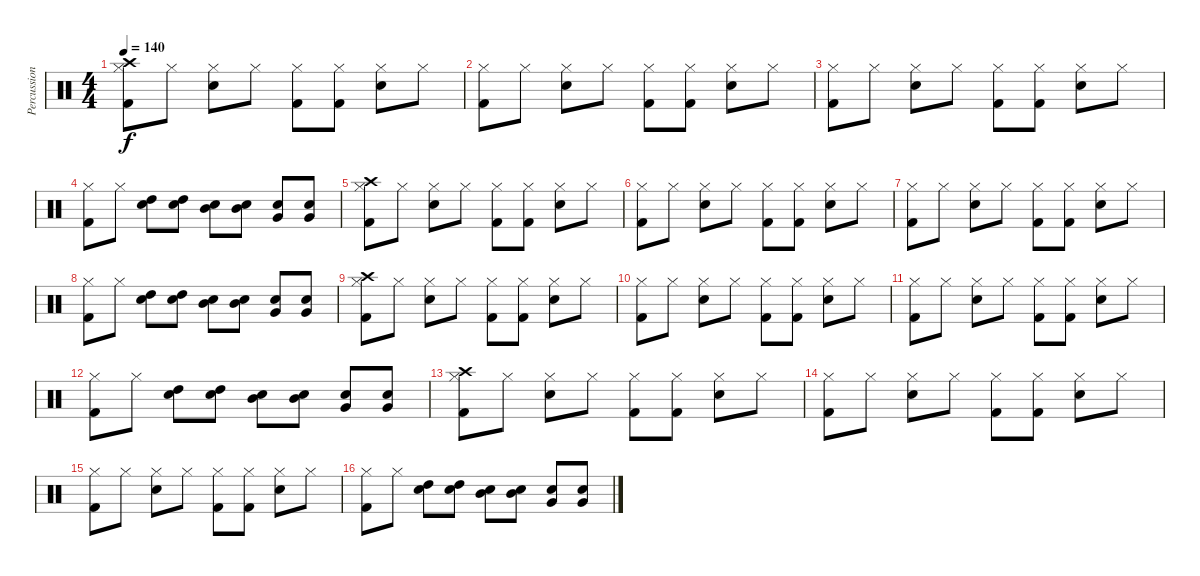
\track ("Percussion" "Percussion") {instrument percussion}
\staff {score}
\articulation defaults
\ts (4 4)
\tempo 140
\clef neutral
\ks c
("Kick (hit) 2" "Hi-Hat (closed)" "Crash high (hit)").8{dy f} "Hi-Hat (closed)".8 ("Electric Snare (hit)" "Hi-Hat (closed)").8 "Hi-Hat (closed)".8 ("Kick (hit) 2" "Hi-Hat (closed)").8 ("Kick (hit) 2" "Hi-Hat (closed)").8 ("Electric Snare (hit)" "Hi-Hat (closed)").8 "Hi-Hat (closed)".8 |
("Kick (hit) 2" "Hi-Hat (closed)").8 "Hi-Hat (closed)".8 ("Electric Snare (hit)" "Hi-Hat (closed)").8 "Hi-Hat (closed)".8 ("Kick (hit) 2" "Hi-Hat (closed)").8 ("Kick (hit) 2" "Hi-Hat (closed)").8 ("Electric Snare (hit)" "Hi-Hat (closed)").8 "Hi-Hat (closed)".8 |
("Kick (hit) 2" "Hi-Hat (closed)").8 "Hi-Hat (closed)".8 ("Electric Snare (hit)" "Hi-Hat (closed)").8 "Hi-Hat (closed)".8 ("Kick (hit) 2" "Hi-Hat (closed)").8 ("Kick (hit) 2" "Hi-Hat (closed)").8 ("Electric Snare (hit)" "Hi-Hat (closed)").8 "Hi-Hat (closed)".8 |
("Kick (hit) 2" "Hi-Hat (closed)").8 "Hi-Hat (closed)".8 ("Electric Snare (hit)" "High Tom (hit)").8 ("Electric Snare (hit)" "High Tom (hit)").8 ("Electric Snare (hit)" "Mid Tom (hit)").8 ("Electric Snare (hit)" "Mid Tom (hit)").8 ("Electric Snare (hit)" "Very Low Tom (hit)").8 ("Electric Snare (hit)" "Very Low Tom (hit)").8 |
("Kick (hit) 2" "Hi-Hat (closed)" "Crash high (hit)").8 "Hi-Hat (closed)".8 ("Electric Snare (hit)" "Hi-Hat (closed)").8 "Hi-Hat (closed)".8 ("Kick (hit) 2" "Hi-Hat (closed)").8 ("Kick (hit) 2" "Hi-Hat (closed)").8 ("Electric Snare (hit)" "Hi-Hat (closed)").8 "Hi-Hat (closed)".8 |
("Kick (hit) 2" "Hi-Hat (closed)").8 "Hi-Hat (closed)".8 ("Electric Snare (hit)" "Hi-Hat (closed)").8 "Hi-Hat (closed)".8 ("Kick (hit) 2" "Hi-Hat (closed)").8 ("Kick (hit) 2" "Hi-Hat (closed)").8 ("Electric Snare (hit)" "Hi-Hat (closed)").8 "Hi-Hat (closed)".8 |
("Kick (hit) 2" "Hi-Hat (closed)").8 "Hi-Hat (closed)".8 ("Electric Snare (hit)" "Hi-Hat (closed)").8 "Hi-Hat (closed)".8 ("Kick (hit) 2" "Hi-Hat (closed)").8 ("Kick (hit) 2" "Hi-Hat (closed)").8 ("Electric Snare (hit)" "Hi-Hat (closed)").8 "Hi-Hat (closed)".8 |
("Kick (hit) 2" "Hi-Hat (closed)").8 "Hi-Hat (closed)".8 ("Electric Snare (hit)" "High Tom (hit)").8 ("Electric Snare (hit)" "High Tom (hit)").8 ("Electric Snare (hit)" "Mid Tom (hit)").8 ("Electric Snare (hit)" "Mid Tom (hit)").8 ("Electric Snare (hit)" "Very Low Tom (hit)").8 ("Electric Snare (hit)" "Very Low Tom (hit)").8 |
("Kick (hit) 2" "Hi-Hat (closed)" "Crash high (hit)").8 "Hi-Hat (closed)".8 ("Electric Snare (hit)" "Hi-Hat (closed)").8 "Hi-Hat (closed)".8 ("Kick (hit) 2" "Hi-Hat (closed)").8 ("Kick (hit) 2" "Hi-Hat (closed)").8 ("Electric Snare (hit)" "Hi-Hat (closed)").8 "Hi-Hat (closed)".8 |
("Kick (hit) 2" "Hi-Hat (closed)").8 "Hi-Hat (closed)".8 ("Electric Snare (hit)" "Hi-Hat (closed)").8 "Hi-Hat (closed)".8 ("Kick (hit) 2" "Hi-Hat (closed)").8 ("Kick (hit) 2" "Hi-Hat (closed)").8 ("Electric Snare (hit)" "Hi-Hat (closed)").8 "Hi-Hat (closed)".8 |
("Kick (hit) 2" "Hi-Hat (closed)").8 "Hi-Hat (closed)".8 ("Electric Snare (hit)" "Hi-Hat (closed)").8 "Hi-Hat (closed)".8 ("Kick (hit) 2" "Hi-Hat (closed)").8 ("Kick (hit) 2" "Hi-Hat (closed)").8 ("Electric Snare (hit)" "Hi-Hat (closed)").8 "Hi-Hat (closed)".8 |
("Kick (hit) 2" "Hi-Hat (closed)").8 "Hi-Hat (closed)".8 ("Electric Snare (hit)" "High Tom (hit)").8 ("Electric Snare (hit)" "High Tom (hit)").8 ("Electric Snare (hit)" "Mid Tom (hit)").8 ("Electric Snare (hit)" "Mid Tom (hit)").8 ("Electric Snare (hit)" "Very Low Tom (hit)").8 ("Electric Snare (hit)" "Very Low Tom (hit)").8 |
("Kick (hit) 2" "Hi-Hat (closed)" "Crash high (hit)").8 "Hi-Hat (closed)".8 ("Electric Snare (hit)" "Hi-Hat (closed)").8 "Hi-Hat (closed)".8 ("Kick (hit) 2" "Hi-Hat (closed)").8 ("Kick (hit) 2" "Hi-Hat (closed)").8 ("Electric Snare (hit)" "Hi-Hat (closed)").8 "Hi-Hat (closed)".8 |
("Kick (hit) 2" "Hi-Hat (closed)").8 "Hi-Hat (closed)".8 ("Electric Snare (hit)" "Hi-Hat (closed)").8 "Hi-Hat (closed)".8 ("Kick (hit) 2" "Hi-Hat (closed)").8 ("Kick (hit) 2" "Hi-Hat (closed)").8 ("Electric Snare (hit)" "Hi-Hat (closed)").8 "Hi-Hat (closed)".8 |
("Kick (hit) 2" "Hi-Hat (closed)").8 "Hi-Hat (closed)".8 ("Electric Snare (hit)" "Hi-Hat (closed)").8 "Hi-Hat (closed)".8 ("Kick (hit) 2" "Hi-Hat (closed)").8 ("Kick (hit) 2" "Hi-Hat (closed)").8 ("Electric Snare (hit)" "Hi-Hat (closed)").8 "Hi-Hat (closed)".8 |
("Kick (hit) 2" "Hi-Hat (closed)").8 "Hi-Hat (closed)".8 ("Electric Snare (hit)" "High Tom (hit)").8 ("Electric Snare (hit)" "High Tom (hit)").8 ("Electric Snare (hit)" "Mid Tom (hit)").8 ("Electric Snare (hit)" "Mid Tom (hit)").8 ("Electric Snare (hit)" "Very Low Tom (hit)").8 ("Electric Snare (hit)" "Very Low Tom (hit)").8
